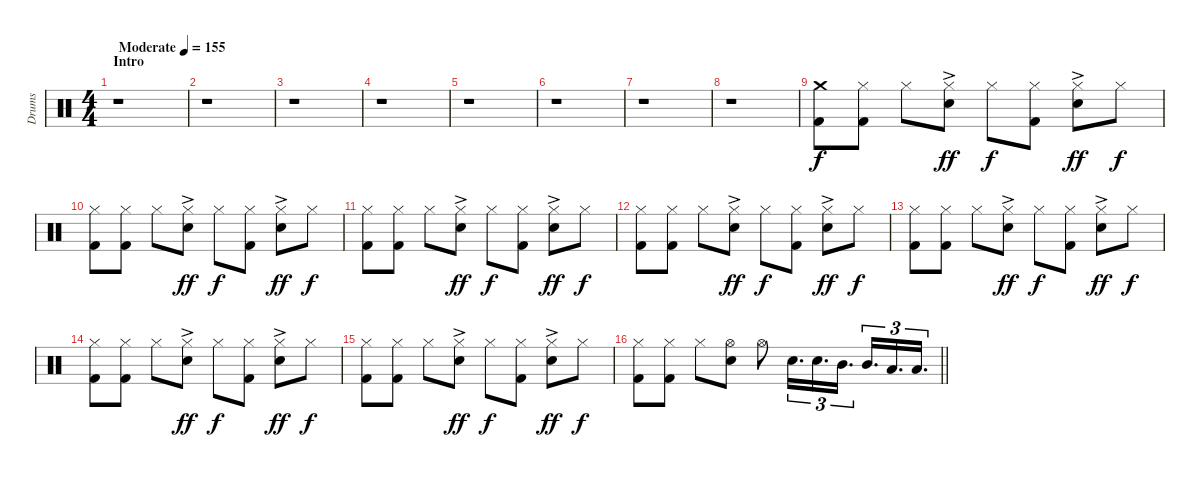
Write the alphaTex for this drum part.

\track ("Drums" "Drums") {instrument percussion}
\staff {score}
\articulation defaults
\ts (4 4)
\section ("" "Intro")
\tempo (155 "Moderate")
\clef neutral
\ks c
r.1{dy f} |
r.1 |
r.1 |
r.1 |
r.1 |
r.1 |
r.1 |
r.1 |
("Crash medium (hit)" "Kick (hit) 2").8 ("Hi-Hat (closed)" "Kick (hit) 2").8 "Hi-Hat (closed)".8 ("Hi-Hat (closed)"{ac} "Electric Snare (hit)").8{dy ff} "Hi-Hat (closed)".8{dy f} ("Hi-Hat (closed)" "Kick (hit) 2").8 ("Hi-Hat (closed)"{ac} "Electric Snare (hit)").8{dy ff} "Hi-Hat (closed)".8{dy f} |
("Hi-Hat (closed)" "Kick (hit) 2").8 ("Hi-Hat (closed)" "Kick (hit) 2").8 "Hi-Hat (closed)".8 ("Hi-Hat (closed)"{ac} "Electric Snare (hit)").8{dy ff} "Hi-Hat (closed)".8{dy f} ("Hi-Hat (closed)" "Kick (hit) 2").8 ("Hi-Hat (closed)"{ac} "Electric Snare (hit)").8{dy ff} "Hi-Hat (closed)".8{dy f} |
("Hi-Hat (closed)" "Kick (hit) 2").8 ("Hi-Hat (closed)" "Kick (hit) 2").8 "Hi-Hat (closed)".8 ("Hi-Hat (closed)"{ac} "Electric Snare (hit)").8{dy ff} "Hi-Hat (closed)".8{dy f} ("Hi-Hat (closed)" "Kick (hit) 2").8 ("Hi-Hat (closed)"{ac} "Electric Snare (hit)").8{dy ff} "Hi-Hat (closed)".8{dy f} |
("Hi-Hat (closed)" "Kick (hit) 2").8 ("Hi-Hat (closed)" "Kick (hit) 2").8 "Hi-Hat (closed)".8 ("Hi-Hat (closed)"{ac} "Electric Snare (hit)").8{dy ff} "Hi-Hat (closed)".8{dy f} ("Hi-Hat (closed)" "Kick (hit) 2").8 ("Hi-Hat (closed)"{ac} "Electric Snare (hit)").8{dy ff} "Hi-Hat (closed)".8{dy f} |
("Hi-Hat (closed)" "Kick (hit) 2").8 ("Hi-Hat (closed)" "Kick (hit) 2").8 "Hi-Hat (closed)".8 ("Hi-Hat (closed)"{ac} "Electric Snare (hit)").8{dy ff} "Hi-Hat (closed)".8{dy f} ("Hi-Hat (closed)" "Kick (hit) 2").8 ("Hi-Hat (closed)"{ac} "Electric Snare (hit)").8{dy ff} "Hi-Hat (closed)".8{dy f} |
("Hi-Hat (closed)" "Kick (hit) 2").8 ("Hi-Hat (closed)" "Kick (hit) 2").8 "Hi-Hat (closed)".8 ("Hi-Hat (closed)"{ac} "Electric Snare (hit)").8{dy ff} "Hi-Hat (closed)".8{dy f} ("Hi-Hat (closed)" "Kick (hit) 2").8 ("Hi-Hat (closed)"{ac} "Electric Snare (hit)").8{dy ff} "Hi-Hat (closed)".8{dy f} |
("Hi-Hat (closed)" "Kick (hit) 2").8 ("Hi-Hat (closed)" "Kick (hit) 2").8 "Hi-Hat (closed)".8 ("Hi-Hat (closed)"{ac} "Electric Snare (hit)").8{dy ff} "Hi-Hat (closed)".8{dy f} ("Hi-Hat (closed)" "Kick (hit) 2").8 ("Hi-Hat (closed)"{ac} "Electric Snare (hit)").8{dy ff} "Hi-Hat (closed)".8{dy f} |
\barLineRight lightlight
("Hi-Hat (closed)" "Kick (hit) 2").8 ("Hi-Hat (closed)" "Kick (hit) 2").8 "Hi-Hat (closed)".8 ("Hi-Hat (open)" "Electric Snare (hit)").8 "Hi-Hat (open)".8 "Electric Snare (hit)".16{d tu (3 2)} "Electric Snare (hit)".16{d tu (3 2)} "Mid Tom (hit)".16{d tu (3 2)} "Mid Tom (hit)".16{d tu (3 2)} "Low Tom (hit)".16{d tu (3 2)} "Low Tom (hit)".16{d tu (3 2)}
